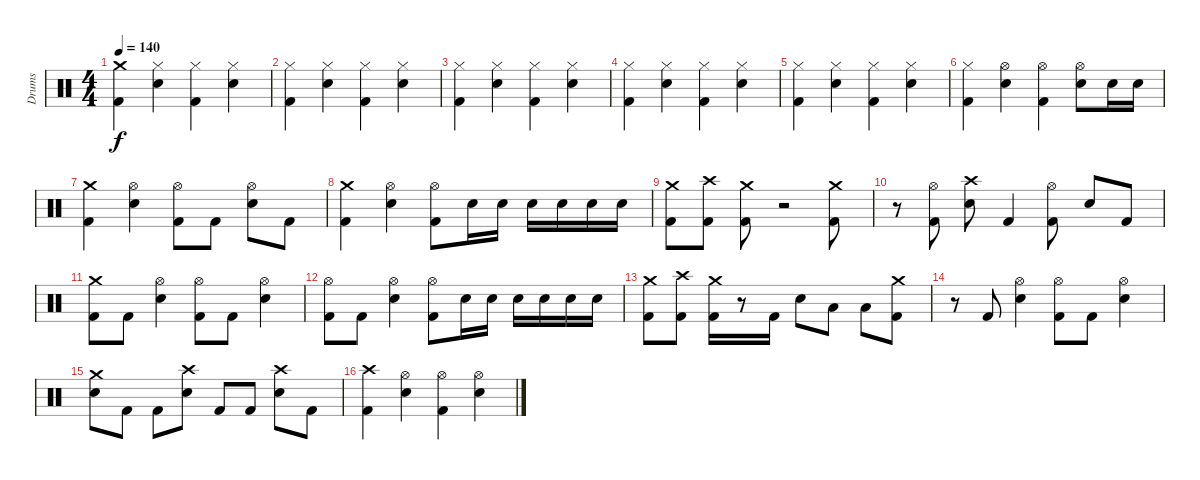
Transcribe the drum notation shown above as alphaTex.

\track ("Drums" "Drums") {instrument percussion}
\staff {score}
\articulation defaults
\ts (4 4)
\tempo 140
\clef neutral
\ks c
("Crash medium (hit)" "Kick (hit) 2").4{dy f} ("Hi-Hat (closed)" "Electric Snare (hit)").4 ("Hi-Hat (closed)" "Kick (hit) 2").4 ("Hi-Hat (closed)" "Electric Snare (hit)").4 |
("Hi-Hat (closed)" "Kick (hit) 2").4 ("Hi-Hat (closed)" "Electric Snare (hit)").4 ("Hi-Hat (closed)" "Kick (hit) 2").4 ("Hi-Hat (closed)" "Electric Snare (hit)").4 |
("Hi-Hat (closed)" "Kick (hit) 2").4 ("Hi-Hat (closed)" "Electric Snare (hit)").4 ("Hi-Hat (closed)" "Kick (hit) 2").4 ("Hi-Hat (closed)" "Electric Snare (hit)").4 |
("Hi-Hat (closed)" "Kick (hit) 2").4 ("Hi-Hat (closed)" "Electric Snare (hit)").4 ("Hi-Hat (closed)" "Kick (hit) 2").4 ("Hi-Hat (closed)" "Electric Snare (hit)").4 |
("Hi-Hat (closed)" "Kick (hit) 2").4 ("Hi-Hat (closed)" "Electric Snare (hit)").4 ("Hi-Hat (closed)" "Kick (hit) 2").4 ("Hi-Hat (closed)" "Electric Snare (hit)").4 |
("Hi-Hat (closed)" "Kick (hit) 2").4 ("Hi-Hat (open)" "Electric Snare (hit)").4 ("Hi-Hat (open)" "Kick (hit) 2").4 ("Hi-Hat (open)" "Electric Snare (hit)").8 "Electric Snare (hit)".16 "Electric Snare (hit)".16 |
("Crash medium (hit)" "Kick (hit) 2").4 ("Hi-Hat (open)" "Electric Snare (hit)").4 ("Hi-Hat (open)" "Kick (hit) 2").8 "Kick (hit) 2".8 ("Hi-Hat (open)" "Electric Snare (hit)").8 "Kick (hit) 2".8 |
("Crash medium (hit)" "Kick (hit) 2").4 ("Hi-Hat (open)" "Electric Snare (hit)").4 ("Hi-Hat (open)" "Kick (hit) 2").8 "Electric Snare (hit)".16 "Electric Snare (hit)".16 "Electric Snare (hit)".16 "Electric Snare (hit)".16 "Electric Snare (hit)".16 "Electric Snare (hit)".16 |
("Crash medium (hit)" "Kick (hit) 2").8 ("Crash high (hit)" "Kick (hit) 2").8 ("Crash medium (hit)" "Kick (hit) 2").8 r.2 ("Crash medium (hit)" "Kick (hit) 2").8 |
r.8 ("Hi-Hat (open)" "Kick (hit) 2").8 ("Crash high (hit)" "Electric Snare (hit)").8 "Kick (hit) 2".4 ("Hi-Hat (open)" "Kick (hit) 2").8 "Electric Snare (hit)".8 "Kick (hit) 2".8 |
("Crash medium (hit)" "Kick (hit) 2").8 "Kick (hit) 2".8 ("Hi-Hat (open)" "Electric Snare (hit)").4 ("Hi-Hat (open)" "Kick (hit) 2").8 "Kick (hit) 2".8 ("Hi-Hat (open)" "Electric Snare (hit)").4 |
("Hi-Hat (open)" "Kick (hit) 2").8 "Kick (hit) 2".8 ("Hi-Hat (open)" "Electric Snare (hit)").4 ("Hi-Hat (open)" "Kick (hit) 2").8 "Electric Snare (hit)".16 "Electric Snare (hit)".16 "Electric Snare (hit)".16 "Electric Snare (hit)".16 "Electric Snare (hit)".16 "Electric Snare (hit)".16 |
("Crash medium (hit)" "Kick (hit) 2").8 ("Crash high (hit)" "Kick (hit) 2").8 ("Crash medium (hit)" "Kick (hit) 2").16 r.8 "Kick (hit) 2".16 "Electric Snare (hit)".8 "Low Tom (hit)".8 "Low Floor Tom (hit)".8 ("Crash medium (hit)" "Kick (hit) 2").8 |
r.8 "Kick (hit) 2".8 ("Hi-Hat (open)" "Electric Snare (hit)").4 ("Hi-Hat (open)" "Kick (hit) 2").8 "Kick (hit) 2".8 ("Hi-Hat (open)" "Electric Snare (hit)").4 |
("Crash medium (hit)" "Electric Snare (hit)").8 "Kick (hit) 2".8 "Kick (hit) 2".8 ("Crash high (hit)" "Electric Snare (hit)").8 "Kick (hit) 2".8 "Kick (hit) 2".8 ("Crash high (hit)" "Electric Snare (hit)").8 "Kick (hit) 2".8 |
("Crash high (hit)" "Kick (hit) 2").4 ("Hi-Hat (open)" "Electric Snare (hit)").4 ("Hi-Hat (open)" "Kick (hit) 2").4 ("Hi-Hat (open)" "Electric Snare (hit)").4
